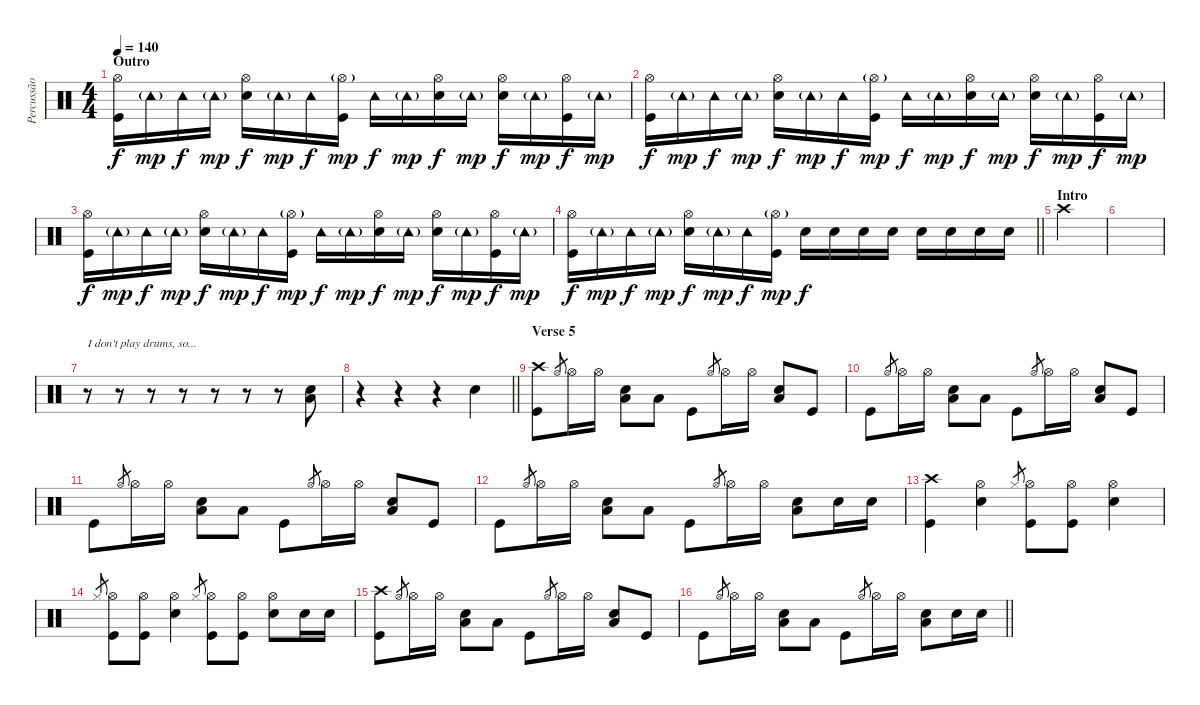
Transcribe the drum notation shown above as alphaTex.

\track ("Percussão" "Percussão") {instrument percussion}
\staff {score}
\articulation defaults
\ts (4 4)
\section ("" "Outro")
\tempo 140
\clef neutral
\ks c
("Hi-Hat (open)" "Kick (hit)").16{dy f} "Tambourine (hit)"{g}.16{dy mp} "Tambourine (hit)".16{dy f} "Tambourine (hit)"{g}.16{dy mp} ("Hi-Hat (open)" "Snare (hit) 2").16{dy f} "Tambourine (hit)"{g}.16{dy mp} "Tambourine (hit)".16{dy f} ("Hi-Hat (open)"{g} "Kick (hit)").16{dy mp} "Tambourine (hit)".16{dy f} "Tambourine (hit)"{g}.16{dy mp} ("Hi-Hat (open)" "Snare (hit) 2").16{dy f} "Tambourine (hit)"{g}.16{dy mp} ("Hi-Hat (open)" "Snare (hit) 2").16{dy f} "Tambourine (hit)"{g}.16{dy mp} ("Hi-Hat (open)" "Kick (hit)").16{dy f} "Tambourine (hit)"{g}.16{dy mp} |
("Hi-Hat (open)" "Kick (hit)").16{dy f} "Tambourine (hit)"{g}.16{dy mp} "Tambourine (hit)".16{dy f} "Tambourine (hit)"{g}.16{dy mp} ("Hi-Hat (open)" "Snare (hit) 2").16{dy f} "Tambourine (hit)"{g}.16{dy mp} "Tambourine (hit)".16{dy f} ("Hi-Hat (open)"{g} "Kick (hit)").16{dy mp} "Tambourine (hit)".16{dy f} "Tambourine (hit)"{g}.16{dy mp} ("Hi-Hat (open)" "Snare (hit) 2").16{dy f} "Tambourine (hit)"{g}.16{dy mp} ("Hi-Hat (open)" "Snare (hit) 2").16{dy f} "Tambourine (hit)"{g}.16{dy mp} ("Hi-Hat (open)" "Kick (hit)").16{dy f} "Tambourine (hit)"{g}.16{dy mp} |
("Hi-Hat (open)" "Kick (hit)").16{dy f} "Tambourine (hit)"{g}.16{dy mp} "Tambourine (hit)".16{dy f} "Tambourine (hit)"{g}.16{dy mp} ("Hi-Hat (open)" "Snare (hit) 2").16{dy f} "Tambourine (hit)"{g}.16{dy mp} "Tambourine (hit)".16{dy f} ("Hi-Hat (open)"{g} "Kick (hit)").16{dy mp} "Tambourine (hit)".16{dy f} "Tambourine (hit)"{g}.16{dy mp} ("Hi-Hat (open)" "Snare (hit) 2").16{dy f} "Tambourine (hit)"{g}.16{dy mp} ("Hi-Hat (open)" "Snare (hit) 2").16{dy f} "Tambourine (hit)"{g}.16{dy mp} ("Hi-Hat (open)" "Kick (hit)").16{dy f} "Tambourine (hit)"{g}.16{dy mp} |
\barLineRight lightlight
("Hi-Hat (open)" "Kick (hit)").16{dy f} "Tambourine (hit)"{g}.16{dy mp} "Tambourine (hit)".16{dy f} "Tambourine (hit)"{g}.16{dy mp} ("Hi-Hat (open)" "Snare (hit) 2").16{dy f} "Tambourine (hit)"{g}.16{dy mp} "Tambourine (hit)".16{dy f} ("Hi-Hat (open)"{g} "Kick (hit)").16{dy mp} "Snare (hit) 2".16{dy f} "Snare (hit) 2".16 "Snare (hit) 2".16 "Snare (hit) 2".16 "Snare (hit) 2".16 "Snare (hit) 2".16 "Snare (hit) 2".16 "Snare (hit) 2".16 |
\section ("" "Intro")
"Crash high (hit)".4 |
|
r.8{txt "I don't play drums, so..."} r.8 r.8 r.8 r.8 r.8 r.8 ("Snare (hit) 2" "Low Tom (hit)").8 |
\barLineRight lightlight
r.4 r.4 r.4 "Snare (hit) 2".4 |
\section ("" "Verse 5")
("Crash high (hit)" "Kick (hit)").8 "Hi-Hat (open)".8{gr} "Hi-Hat (open)".16 "Hi-Hat (open)".16 ("Snare (hit) 2" "Low Tom (hit)").8 "Low Tom (hit)".8 "Kick (hit)".8 "Hi-Hat (open)".8{gr} "Hi-Hat (open)".16 "Hi-Hat (open)".16 ("Snare (hit) 2" "Low Tom (hit)").8 "Kick (hit)".8 |
"Kick (hit)".8 "Hi-Hat (open)".8{gr} "Hi-Hat (open)".16 "Hi-Hat (open)".16 ("Snare (hit) 2" "Low Tom (hit)").8 "Low Tom (hit)".8 "Kick (hit)".8 "Hi-Hat (open)".8{gr} "Hi-Hat (open)".16 "Hi-Hat (open)".16 ("Snare (hit) 2" "Low Tom (hit)").8 "Kick (hit)".8 |
"Kick (hit)".8 "Hi-Hat (open)".8{gr} "Hi-Hat (open)".16 "Hi-Hat (open)".16 ("Snare (hit) 2" "Low Tom (hit)").8 "Low Tom (hit)".8 "Kick (hit)".8 "Hi-Hat (open)".8{gr} "Hi-Hat (open)".16 "Hi-Hat (open)".16 ("Snare (hit) 2" "Low Tom (hit)").8 "Kick (hit)".8 |
"Kick (hit)".8 "Hi-Hat (open)".8{gr} "Hi-Hat (open)".16 "Hi-Hat (open)".16 ("Snare (hit) 2" "Low Tom (hit)").8 "Low Tom (hit)".8 "Kick (hit)".8 "Hi-Hat (open)".8{gr} "Hi-Hat (open)".16 "Hi-Hat (open)".16 ("Snare (hit) 2" "Low Tom (hit)").8 "Snare (hit) 2".16 "Snare (hit) 2".16 |
("Crash high (hit)" "Kick (hit)").4 ("Hi-Hat (open)" "Snare (hit) 2").4 "Hi-Hat (closed)".8{gr} ("Hi-Hat (open)" "Kick (hit)").8 ("Hi-Hat (open)" "Kick (hit)").8 ("Hi-Hat (open)" "Snare (hit) 2").4 |
"Hi-Hat (closed)".8{gr} ("Hi-Hat (open)" "Kick (hit)").8 ("Hi-Hat (open)" "Kick (hit)").8 ("Hi-Hat (open)" "Snare (hit) 2").4 "Hi-Hat (closed)".8{gr} ("Hi-Hat (open)" "Kick (hit)").8 ("Hi-Hat (open)" "Kick (hit)").8 ("Hi-Hat (open)" "Snare (hit) 2").8 "Snare (hit) 2".16 "Snare (hit) 2".16 |
("Crash high (hit)" "Kick (hit)").8 "Hi-Hat (open)".8{gr} "Hi-Hat (open)".16 "Hi-Hat (open)".16 ("Snare (hit) 2" "Low Tom (hit)").8 "Low Tom (hit)".8 "Kick (hit)".8 "Hi-Hat (open)".8{gr} "Hi-Hat (open)".16 "Hi-Hat (open)".16 ("Snare (hit) 2" "Low Tom (hit)").8 "Kick (hit)".8 |
\barLineRight lightlight "Kick (hit)".8 "Hi-Hat (open)".8{gr} "Hi-Hat (open)".16 "Hi-Hat (open)".16
("Snare (hit) 2" "Low Tom (hit)").8 "Low Tom (hit)".8 "Kick (hit)".8 "Hi-Hat (open)".8{gr} "Hi-Hat (open)".16 "Hi-Hat (open)".16 ("Snare (hit) 2" "Low Tom (hit)").8 "Snare (hit) 2".16 "Snare (hit) 2".16
